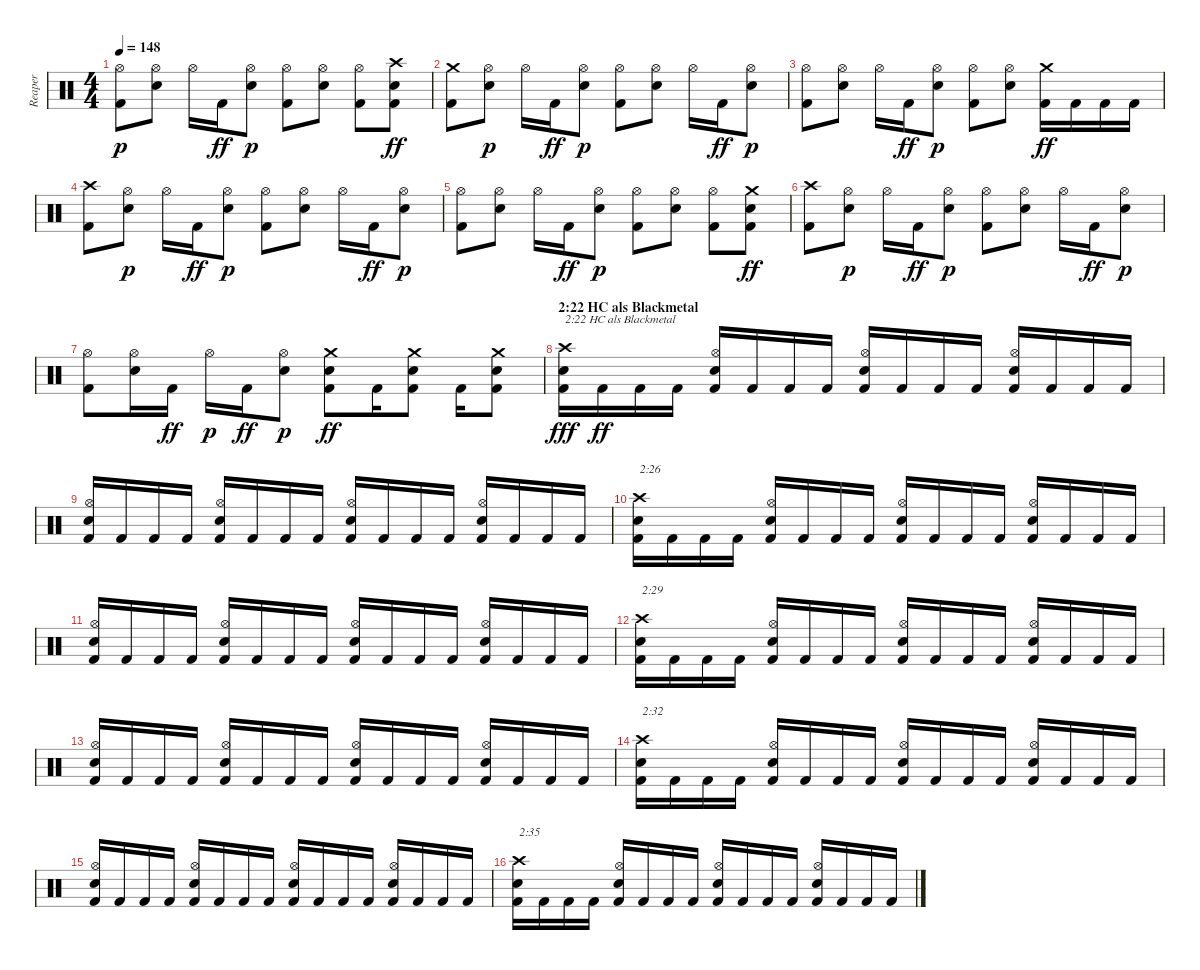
\track ("Reaper" "Reaper") {instrument percussion}
\staff {score}
\articulation defaults
\ts (4 4)
\tempo 148
\clef neutral
\ks c
("Kick (hit) 2" "Hi-Hat (open)").8{dy p} ("Electric Snare (hit)" "Hi-Hat (open)").8 "Hi-Hat (open)".16 "Kick (hit) 2".16{dy ff} ("Electric Snare (hit)" "Hi-Hat (open)").8{dy p} ("Kick (hit) 2" "Hi-Hat (open)").8 ("Electric Snare (hit)" "Hi-Hat (open)").8 ("Kick (hit) 2" "Hi-Hat (open)").8 ("Kick (hit) 2" "Electric Snare (hit)" "Crash high (hit)").8{dy ff} |
("Kick (hit) 2" "Crash medium (hit)").8 ("Electric Snare (hit)" "Hi-Hat (open)").8{dy p} "Hi-Hat (open)".16 "Kick (hit) 2".16{dy ff} ("Electric Snare (hit)" "Hi-Hat (open)").8{dy p} ("Kick (hit) 2" "Hi-Hat (open)").8 ("Electric Snare (hit)" "Hi-Hat (open)").8 "Hi-Hat (open)".16 "Kick (hit) 2".16{dy ff} ("Electric Snare (hit)" "Hi-Hat (open)").8{dy p} |
("Kick (hit) 2" "Hi-Hat (open)").8 ("Electric Snare (hit)" "Hi-Hat (open)").8 "Hi-Hat (open)".16 "Kick (hit) 2".16{dy ff} ("Electric Snare (hit)" "Hi-Hat (open)").8{dy p} ("Kick (hit) 2" "Hi-Hat (open)").8 ("Electric Snare (hit)" "Hi-Hat (open)").8 ("Kick (hit) 2" "Crash medium (hit)").16{dy ff} "Kick (hit) 2".16 "Kick (hit) 2".16 "Kick (hit) 2".16 |
("Kick (hit) 2" "Crash high (hit)").8 ("Electric Snare (hit)" "Hi-Hat (open)").8{dy p} "Hi-Hat (open)".16 "Kick (hit) 2".16{dy ff} ("Electric Snare (hit)" "Hi-Hat (open)").8{dy p} ("Kick (hit) 2" "Hi-Hat (open)").8 ("Electric Snare (hit)" "Hi-Hat (open)").8 "Hi-Hat (open)".16 "Kick (hit) 2".16{dy ff} ("Electric Snare (hit)" "Hi-Hat (open)").8{dy p} |
("Kick (hit) 2" "Hi-Hat (open)").8 ("Electric Snare (hit)" "Hi-Hat (open)").8 "Hi-Hat (open)".16 "Kick (hit) 2".16{dy ff} ("Electric Snare (hit)" "Hi-Hat (open)").8{dy p} ("Kick (hit) 2" "Hi-Hat (open)").8 ("Electric Snare (hit)" "Hi-Hat (open)").8 ("Kick (hit) 2" "Hi-Hat (open)").8 ("Kick (hit) 2" "Electric Snare (hit)" "Crash medium (hit)").8{dy ff} |
("Kick (hit) 2" "Crash high (hit)").8 ("Electric Snare (hit)" "Hi-Hat (open)").8{dy p} "Hi-Hat (open)".16 "Kick (hit) 2".16{dy ff} ("Electric Snare (hit)" "Hi-Hat (open)").8{dy p} ("Kick (hit) 2" "Hi-Hat (open)").8 ("Electric Snare (hit)" "Hi-Hat (open)").8 "Hi-Hat (open)".16 "Kick (hit) 2".16{dy ff} ("Electric Snare (hit)" "Hi-Hat (open)").8{dy p} |
("Kick (hit) 2" "Hi-Hat (open)").8 ("Electric Snare (hit)" "Hi-Hat (open)").16 "Kick (hit) 2".16{dy ff} "Hi-Hat (open)".16{dy p} "Kick (hit) 2".16{dy ff} ("Electric Snare (hit)" "Hi-Hat (open)").8{dy p} ("Kick (hit) 2" "Electric Snare (hit)" "Crash medium (hit)").8{dy ff} "Kick (hit) 2".16 ("Kick (hit) 2" "Electric Snare (hit)" "Crash medium (hit)").8 "Kick (hit) 2".16 ("Kick (hit) 2" "Electric Snare (hit)" "Crash medium (hit)").8 |
\section ("" "2:22 HC als Blackmetal")
("Kick (hit) 2" "Electric Snare (hit)" "Crash high (hit)").16{txt "2:22 HC als Blackmetal" dy fff} "Kick (hit) 2".16{dy ff} "Kick (hit) 2".16 "Kick (hit) 2".16 ("Kick (hit) 2" "Electric Snare (hit)" "Hi-Hat (open)").16 "Kick (hit) 2".16 "Kick (hit) 2".16 "Kick (hit) 2".16 ("Kick (hit) 2" "Electric Snare (hit)" "Hi-Hat (open)").16 "Kick (hit) 2".16 "Kick (hit) 2".16 "Kick (hit) 2".16 ("Kick (hit) 2" "Electric Snare (hit)" "Hi-Hat (open)").16 "Kick (hit) 2".16 "Kick (hit) 2".16 "Kick (hit) 2".16 |
("Kick (hit) 2" "Electric Snare (hit)" "Hi-Hat (open)").16 "Kick (hit) 2".16 "Kick (hit) 2".16 "Kick (hit) 2".16 ("Kick (hit) 2" "Electric Snare (hit)" "Hi-Hat (open)").16 "Kick (hit) 2".16 "Kick (hit) 2".16 "Kick (hit) 2".16 ("Kick (hit) 2" "Electric Snare (hit)" "Hi-Hat (open)").16 "Kick (hit) 2".16 "Kick (hit) 2".16 "Kick (hit) 2".16 ("Kick (hit) 2" "Electric Snare (hit)" "Hi-Hat (open)").16 "Kick (hit) 2".16 "Kick (hit) 2".16 "Kick (hit) 2".16 |
("Kick (hit) 2" "Electric Snare (hit)" "Crash high (hit)").16{txt "2:26"} "Kick (hit) 2".16 "Kick (hit) 2".16 "Kick (hit) 2".16 ("Kick (hit) 2" "Electric Snare (hit)" "Hi-Hat (open)").16 "Kick (hit) 2".16 "Kick (hit) 2".16 "Kick (hit) 2".16 ("Kick (hit) 2" "Electric Snare (hit)" "Hi-Hat (open)").16 "Kick (hit) 2".16 "Kick (hit) 2".16 "Kick (hit) 2".16 ("Kick (hit) 2" "Electric Snare (hit)" "Hi-Hat (open)").16 "Kick (hit) 2".16 "Kick (hit) 2".16 "Kick (hit) 2".16 |
("Kick (hit) 2" "Electric Snare (hit)" "Hi-Hat (open)").16 "Kick (hit) 2".16 "Kick (hit) 2".16 "Kick (hit) 2".16 ("Kick (hit) 2" "Electric Snare (hit)" "Hi-Hat (open)").16 "Kick (hit) 2".16 "Kick (hit) 2".16 "Kick (hit) 2".16 ("Kick (hit) 2" "Electric Snare (hit)" "Hi-Hat (open)").16 "Kick (hit) 2".16 "Kick (hit) 2".16 "Kick (hit) 2".16 ("Kick (hit) 2" "Electric Snare (hit)" "Hi-Hat (open)").16 "Kick (hit) 2".16 "Kick (hit) 2".16 "Kick (hit) 2".16 |
("Kick (hit) 2" "Electric Snare (hit)" "Crash high (hit)").16{txt "2:29"} "Kick (hit) 2".16 "Kick (hit) 2".16 "Kick (hit) 2".16 ("Kick (hit) 2" "Electric Snare (hit)" "Hi-Hat (open)").16 "Kick (hit) 2".16 "Kick (hit) 2".16 "Kick (hit) 2".16 ("Kick (hit) 2" "Electric Snare (hit)" "Hi-Hat (open)").16 "Kick (hit) 2".16 "Kick (hit) 2".16 "Kick (hit) 2".16 ("Kick (hit) 2" "Electric Snare (hit)" "Hi-Hat (open)").16 "Kick (hit) 2".16 "Kick (hit) 2".16 "Kick (hit) 2".16 |
("Kick (hit) 2" "Electric Snare (hit)" "Hi-Hat (open)").16 "Kick (hit) 2".16 "Kick (hit) 2".16 "Kick (hit) 2".16 ("Kick (hit) 2" "Electric Snare (hit)" "Hi-Hat (open)").16 "Kick (hit) 2".16 "Kick (hit) 2".16 "Kick (hit) 2".16 ("Kick (hit) 2" "Electric Snare (hit)" "Hi-Hat (open)").16 "Kick (hit) 2".16 "Kick (hit) 2".16 "Kick (hit) 2".16 ("Kick (hit) 2" "Electric Snare (hit)" "Hi-Hat (open)").16 "Kick (hit) 2".16 "Kick (hit) 2".16 "Kick (hit) 2".16 |
("Kick (hit) 2" "Electric Snare (hit)" "Crash high (hit)").16{txt "2:32"} "Kick (hit) 2".16 "Kick (hit) 2".16 "Kick (hit) 2".16 ("Kick (hit) 2" "Electric Snare (hit)" "Hi-Hat (open)").16 "Kick (hit) 2".16 "Kick (hit) 2".16 "Kick (hit) 2".16 ("Kick (hit) 2" "Electric Snare (hit)" "Hi-Hat (open)").16 "Kick (hit) 2".16 "Kick (hit) 2".16 "Kick (hit) 2".16 ("Kick (hit) 2" "Electric Snare (hit)" "Hi-Hat (open)").16 "Kick (hit) 2".16 "Kick (hit) 2".16 "Kick (hit) 2".16 |
("Kick (hit) 2" "Electric Snare (hit)" "Hi-Hat (open)").16 "Kick (hit) 2".16 "Kick (hit) 2".16 "Kick (hit) 2".16 ("Kick (hit) 2" "Electric Snare (hit)" "Hi-Hat (open)").16 "Kick (hit) 2".16 "Kick (hit) 2".16 "Kick (hit) 2".16 ("Kick (hit) 2" "Electric Snare (hit)" "Hi-Hat (open)").16 "Kick (hit) 2".16 "Kick (hit) 2".16 "Kick (hit) 2".16 ("Kick (hit) 2" "Electric Snare (hit)" "Hi-Hat (open)").16 "Kick (hit) 2".16 "Kick (hit) 2".16 "Kick (hit) 2".16 |
("Kick (hit) 2" "Electric Snare (hit)" "Crash high (hit)").16{txt "2:35"} "Kick (hit) 2".16 "Kick (hit) 2".16 "Kick (hit) 2".16 ("Kick (hit) 2" "Electric Snare (hit)" "Hi-Hat (open)").16 "Kick (hit) 2".16 "Kick (hit) 2".16 "Kick (hit) 2".16 ("Kick (hit) 2" "Electric Snare (hit)" "Hi-Hat (open)").16 "Kick (hit) 2".16 "Kick (hit) 2".16 "Kick (hit) 2".16 ("Kick (hit) 2" "Electric Snare (hit)" "Hi-Hat (open)").16 "Kick (hit) 2".16 "Kick (hit) 2".16 "Kick (hit) 2".16
